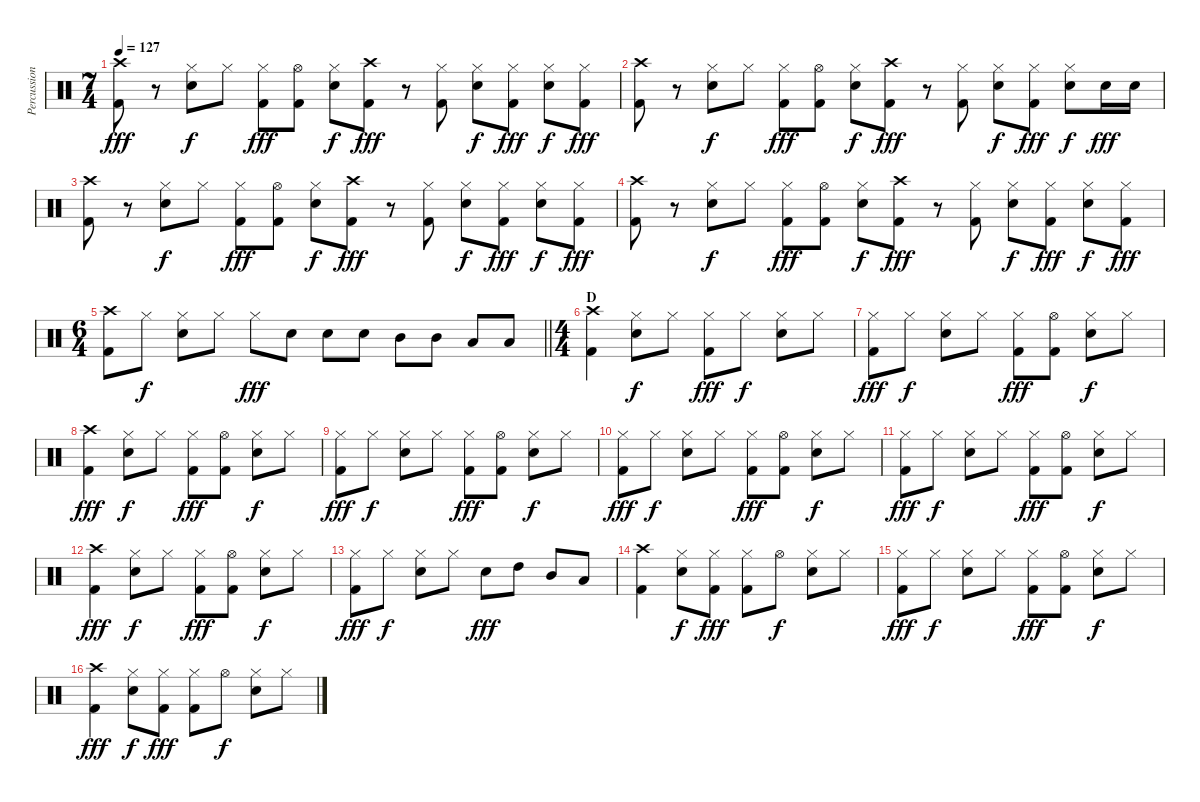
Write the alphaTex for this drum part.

\track ("Percussion" "Percussion") {instrument percussion}
\staff {score}
\articulation defaults
\ts (7 4)
\tempo 127
\clef neutral
\ks c
("Crash high (hit)" "Kick (hit) 2").8{dy fff} r.8 ("Hi-Hat (closed)" "Electric Snare (hit)").8{dy f} "Hi-Hat (closed)".8 ("Hi-Hat (closed)" "Kick (hit) 2").8{dy fff} ("Hi-Hat (open)" "Kick (hit) 2").8 ("Hi-Hat (closed)" "Electric Snare (hit)").8{dy f} ("Crash high (hit)" "Kick (hit) 2").8{dy fff} r.8 ("Hi-Hat (closed)" "Kick (hit) 2").8 ("Hi-Hat (closed)" "Electric Snare (hit)").8{dy f} ("Hi-Hat (closed)" "Kick (hit) 2").8{dy fff} ("Hi-Hat (closed)" "Electric Snare (hit)").8{dy f} ("Hi-Hat (closed)" "Kick (hit) 2").8{dy fff} |
("Crash high (hit)" "Kick (hit) 2").8 r.8 ("Hi-Hat (closed)" "Electric Snare (hit)").8{dy f} "Hi-Hat (closed)".8 ("Hi-Hat (closed)" "Kick (hit) 2").8{dy fff} ("Hi-Hat (open)" "Kick (hit) 2").8 ("Hi-Hat (closed)" "Electric Snare (hit)").8{dy f} ("Crash high (hit)" "Kick (hit) 2").8{dy fff} r.8 ("Hi-Hat (closed)" "Kick (hit) 2").8 ("Hi-Hat (closed)" "Electric Snare (hit)").8{dy f} ("Hi-Hat (closed)" "Kick (hit) 2").8{dy fff} ("Hi-Hat (closed)" "Electric Snare (hit)").8{dy f} "Electric Snare (hit)".16{dy fff} "Electric Snare (hit)".16 |
("Crash high (hit)" "Kick (hit) 2").8 r.8 ("Hi-Hat (closed)" "Electric Snare (hit)").8{dy f} "Hi-Hat (closed)".8 ("Hi-Hat (closed)" "Kick (hit) 2").8{dy fff} ("Hi-Hat (open)" "Kick (hit) 2").8 ("Hi-Hat (closed)" "Electric Snare (hit)").8{dy f} ("Crash high (hit)" "Kick (hit) 2").8{dy fff} r.8 ("Hi-Hat (closed)" "Kick (hit) 2").8 ("Hi-Hat (closed)" "Electric Snare (hit)").8{dy f} ("Hi-Hat (closed)" "Kick (hit) 2").8{dy fff} ("Hi-Hat (closed)" "Electric Snare (hit)").8{dy f} ("Hi-Hat (closed)" "Kick (hit) 2").8{dy fff} |
("Crash high (hit)" "Kick (hit) 2").8 r.8 ("Hi-Hat (closed)" "Electric Snare (hit)").8{dy f} "Hi-Hat (closed)".8 ("Hi-Hat (closed)" "Kick (hit) 2").8{dy fff} ("Hi-Hat (open)" "Kick (hit) 2").8 ("Hi-Hat (closed)" "Electric Snare (hit)").8{dy f} ("Crash high (hit)" "Kick (hit) 2").8{dy fff} r.8 ("Hi-Hat (closed)" "Kick (hit) 2").8 ("Hi-Hat (closed)" "Electric Snare (hit)").8{dy f} ("Hi-Hat (closed)" "Kick (hit) 2").8{dy fff} ("Hi-Hat (closed)" "Electric Snare (hit)").8{dy f} ("Hi-Hat (closed)" "Kick (hit) 2").8{dy fff} |
\ts (6 4)
\barLineRight lightlight
("Crash high (hit)" "Kick (hit) 2").8 "Hi-Hat (closed)".8{dy f} ("Hi-Hat (closed)" "Electric Snare (hit)").8 "Hi-Hat (closed)".8 "Hi-Hat (closed)".8{dy fff} "Electric Snare (hit)".8 "Electric Snare (hit)".8 "Electric Snare (hit)".8 "Mid Tom (hit)".8 "Mid Tom (hit)".8 "Low Tom (hit)".8 "Low Tom (hit)".8 |
\ts (4 4)
\section ("" "D")
("Crash high (hit)" "Kick (hit) 2").4 ("Hi-Hat (closed)" "Electric Snare (hit)").8{dy f} "Hi-Hat (closed)".8 ("Hi-Hat (closed)" "Kick (hit) 2").8{dy fff} "Hi-Hat (closed)".8{dy f} ("Hi-Hat (closed)" "Electric Snare (hit)").8 "Hi-Hat (closed)".8 |
("Hi-Hat (closed)" "Kick (hit) 2").8{dy fff} "Hi-Hat (closed)".8{dy f} ("Hi-Hat (closed)" "Electric Snare (hit)").8 "Hi-Hat (closed)".8 ("Hi-Hat (closed)" "Kick (hit) 2").8{dy fff} ("Hi-Hat (open)" "Kick (hit) 2").8 ("Hi-Hat (closed)" "Electric Snare (hit)").8{dy f} "Hi-Hat (closed)".8 |
("Crash high (hit)" "Kick (hit) 2").4{dy fff} ("Hi-Hat (closed)" "Electric Snare (hit)").8{dy f} "Hi-Hat (closed)".8 ("Hi-Hat (closed)" "Kick (hit) 2").8{dy fff} ("Hi-Hat (open)" "Kick (hit) 2").8 ("Hi-Hat (closed)" "Electric Snare (hit)").8{dy f} "Hi-Hat (closed)".8 |
("Hi-Hat (closed)" "Kick (hit) 2").8{dy fff} "Hi-Hat (closed)".8{dy f} ("Hi-Hat (closed)" "Electric Snare (hit)").8 "Hi-Hat (closed)".8 ("Hi-Hat (closed)" "Kick (hit) 2").8{dy fff} ("Hi-Hat (open)" "Kick (hit) 2").8 ("Hi-Hat (closed)" "Electric Snare (hit)").8{dy f} "Hi-Hat (closed)".8 |
("Hi-Hat (closed)" "Kick (hit) 2").8{dy fff} "Hi-Hat (closed)".8{dy f} ("Hi-Hat (closed)" "Electric Snare (hit)").8 "Hi-Hat (closed)".8 ("Hi-Hat (closed)" "Kick (hit) 2").8{dy fff} ("Hi-Hat (open)" "Kick (hit) 2").8 ("Hi-Hat (closed)" "Electric Snare (hit)").8{dy f} "Hi-Hat (closed)".8 |
("Hi-Hat (closed)" "Kick (hit) 2").8{dy fff} "Hi-Hat (closed)".8{dy f} ("Hi-Hat (closed)" "Electric Snare (hit)").8 "Hi-Hat (closed)".8 ("Hi-Hat (closed)" "Kick (hit) 2").8{dy fff} ("Hi-Hat (open)" "Kick (hit) 2").8 ("Hi-Hat (closed)" "Electric Snare (hit)").8{dy f} "Hi-Hat (closed)".8 |
("Crash high (hit)" "Kick (hit) 2").4{dy fff} ("Hi-Hat (closed)" "Electric Snare (hit)").8{dy f} "Hi-Hat (closed)".8 ("Hi-Hat (closed)" "Kick (hit) 2").8{dy fff} ("Hi-Hat (open)" "Kick (hit) 2").8 ("Hi-Hat (closed)" "Electric Snare (hit)").8{dy f} "Hi-Hat (closed)".8 |
("Hi-Hat (closed)" "Kick (hit) 2").8{dy fff} "Hi-Hat (closed)".8{dy f} ("Hi-Hat (closed)" "Electric Snare (hit)").8 "Hi-Hat (closed)".8 "Electric Snare (hit)".8{dy fff} "High Tom (hit)".8 "Mid Tom (hit)".8 "Low Tom (hit)".8 |
("Crash high (hit)" "Kick (hit) 2").4 ("Hi-Hat (closed)" "Electric Snare (hit)").8{dy f} ("Hi-Hat (closed)" "Kick (hit) 2").8{dy fff} ("Hi-Hat (closed)" "Kick (hit) 2").8 "Hi-Hat (open)".8{dy f} ("Hi-Hat (closed)" "Electric Snare (hit)").8 "Hi-Hat (closed)".8 |
("Hi-Hat (closed)" "Kick (hit) 2").8{dy fff} "Hi-Hat (closed)".8{dy f} ("Hi-Hat (closed)" "Electric Snare (hit)").8 "Hi-Hat (closed)".8 ("Hi-Hat (closed)" "Kick (hit) 2").8{dy fff} ("Hi-Hat (open)" "Kick (hit) 2").8 ("Hi-Hat (closed)" "Electric Snare (hit)").8{dy f} "Hi-Hat (closed)".8 |
("Crash high (hit)" "Kick (hit) 2").4{dy fff} ("Hi-Hat (closed)" "Electric Snare (hit)").8{dy f} ("Hi-Hat (closed)" "Kick (hit) 2").8{dy fff} ("Hi-Hat (closed)" "Kick (hit) 2").8 "Hi-Hat (open)".8{dy f} ("Hi-Hat (closed)" "Electric Snare (hit)").8 "Hi-Hat (closed)".8
